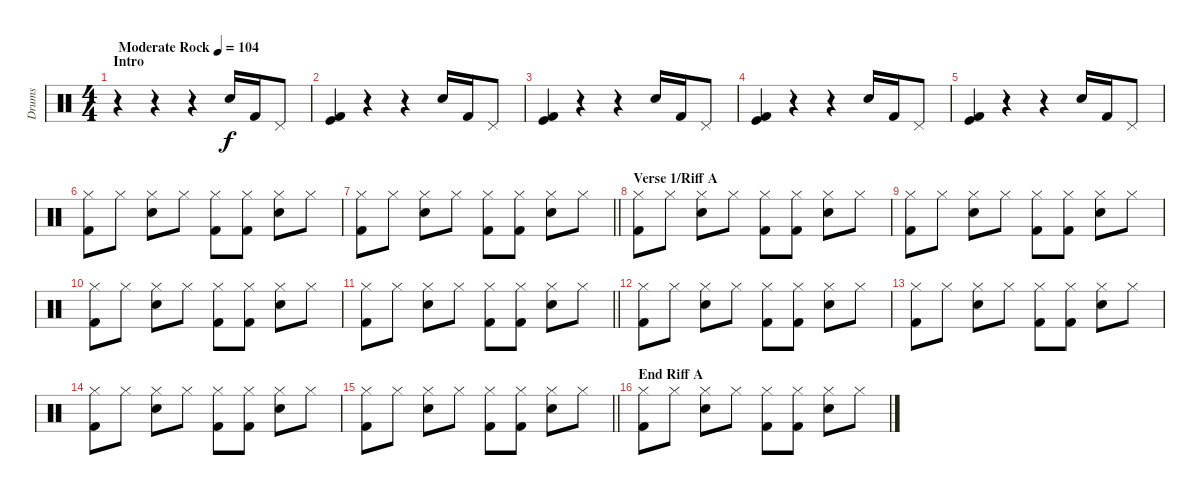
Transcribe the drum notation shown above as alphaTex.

\track ("Drums" "Drums") {instrument percussion}
\staff {score}
\articulation defaults
\ts (4 4)
\section ("" "Intro")
\tempo (104 "Moderate Rock")
\clef neutral
\ks c
r.4{dy f} r.4 r.4 "Snare (hit) 2".16 "Kick (hit) 2".16 "Pedal Hi-Hat (hit)".8 |
("Kick (hit) 2" "Kick (hit)").4 r.4 r.4 "Snare (hit) 2".16 "Kick (hit) 2".16 "Pedal Hi-Hat (hit)".8 |
("Kick (hit) 2" "Kick (hit)").4 r.4 r.4 "Snare (hit) 2".16 "Kick (hit) 2".16 "Pedal Hi-Hat (hit)".8 |
("Kick (hit) 2" "Kick (hit)").4 r.4 r.4 "Snare (hit) 2".16 "Kick (hit) 2".16 "Pedal Hi-Hat (hit)".8 |
("Kick (hit) 2" "Kick (hit)").4 r.4 r.4 "Snare (hit) 2".16 "Kick (hit) 2".16 "Pedal Hi-Hat (hit)".8 |
("Hi-Hat (closed)" "Kick (hit) 2").8 "Hi-Hat (closed)".8 ("Hi-Hat (closed)" "Snare (hit) 2").8 "Hi-Hat (closed)".8 ("Hi-Hat (closed)" "Kick (hit) 2").8 ("Hi-Hat (closed)" "Kick (hit) 2").8 ("Hi-Hat (closed)" "Snare (hit) 2").8 "Hi-Hat (closed)".8 |
\barLineRight lightlight
("Hi-Hat (closed)" "Kick (hit) 2").8 "Hi-Hat (closed)".8 ("Hi-Hat (closed)" "Snare (hit) 2").8 "Hi-Hat (closed)".8 ("Hi-Hat (closed)" "Kick (hit) 2").8 ("Hi-Hat (closed)" "Kick (hit) 2").8 ("Hi-Hat (closed)" "Snare (hit) 2").8 "Hi-Hat (closed)".8 |
\section ("" "Verse 1/Riff A")
("Hi-Hat (closed)" "Kick (hit) 2").8 "Hi-Hat (closed)".8 ("Hi-Hat (closed)" "Snare (hit) 2").8 "Hi-Hat (closed)".8 ("Hi-Hat (closed)" "Kick (hit) 2").8 ("Hi-Hat (closed)" "Kick (hit) 2").8 ("Hi-Hat (closed)" "Snare (hit) 2").8 "Hi-Hat (closed)".8 |
("Hi-Hat (closed)" "Kick (hit) 2").8 "Hi-Hat (closed)".8 ("Hi-Hat (closed)" "Snare (hit) 2").8 "Hi-Hat (closed)".8 ("Hi-Hat (closed)" "Kick (hit) 2").8 ("Hi-Hat (closed)" "Kick (hit) 2").8 ("Hi-Hat (closed)" "Snare (hit) 2").8 "Hi-Hat (closed)".8 |
("Hi-Hat (closed)" "Kick (hit) 2").8 "Hi-Hat (closed)".8 ("Hi-Hat (closed)" "Snare (hit) 2").8 "Hi-Hat (closed)".8 ("Hi-Hat (closed)" "Kick (hit) 2").8 ("Hi-Hat (closed)" "Kick (hit) 2").8 ("Hi-Hat (closed)" "Snare (hit) 2").8 "Hi-Hat (closed)".8 |
\barLineRight lightlight
("Hi-Hat (closed)" "Kick (hit) 2").8 "Hi-Hat (closed)".8 ("Hi-Hat (closed)" "Snare (hit) 2").8 "Hi-Hat (closed)".8 ("Hi-Hat (closed)" "Kick (hit) 2").8 ("Hi-Hat (closed)" "Kick (hit) 2").8 ("Hi-Hat (closed)" "Snare (hit) 2").8 "Hi-Hat (closed)".8 |
("Hi-Hat (closed)" "Kick (hit) 2").8 "Hi-Hat (closed)".8 ("Hi-Hat (closed)" "Snare (hit) 2").8 "Hi-Hat (closed)".8 ("Hi-Hat (closed)" "Kick (hit) 2").8 ("Hi-Hat (closed)" "Kick (hit) 2").8 ("Hi-Hat (closed)" "Snare (hit) 2").8 "Hi-Hat (closed)".8 |
("Hi-Hat (closed)" "Kick (hit) 2").8 "Hi-Hat (closed)".8 ("Hi-Hat (closed)" "Snare (hit) 2").8 "Hi-Hat (closed)".8 ("Hi-Hat (closed)" "Kick (hit) 2").8 ("Hi-Hat (closed)" "Kick (hit) 2").8 ("Hi-Hat (closed)" "Snare (hit) 2").8 "Hi-Hat (closed)".8 |
("Hi-Hat (closed)" "Kick (hit) 2").8 "Hi-Hat (closed)".8 ("Hi-Hat (closed)" "Snare (hit) 2").8 "Hi-Hat (closed)".8 ("Hi-Hat (closed)" "Kick (hit) 2").8 ("Hi-Hat (closed)" "Kick (hit) 2").8 ("Hi-Hat (closed)" "Snare (hit) 2").8 "Hi-Hat (closed)".8 |
\barLineRight lightlight
("Hi-Hat (closed)" "Kick (hit) 2").8 "Hi-Hat (closed)".8 ("Hi-Hat (closed)" "Snare (hit) 2").8 "Hi-Hat (closed)".8 ("Hi-Hat (closed)" "Kick (hit) 2").8 ("Hi-Hat (closed)" "Kick (hit) 2").8 ("Hi-Hat (closed)" "Snare (hit) 2").8 "Hi-Hat (closed)".8 |
\section ("" "End Riff A")
("Hi-Hat (closed)" "Kick (hit) 2").8 "Hi-Hat (closed)".8 ("Hi-Hat (closed)" "Snare (hit) 2").8 "Hi-Hat (closed)".8 ("Hi-Hat (closed)" "Kick (hit) 2").8 ("Hi-Hat (closed)" "Kick (hit) 2").8 ("Hi-Hat (closed)" "Snare (hit) 2").8 "Hi-Hat (closed)".8
